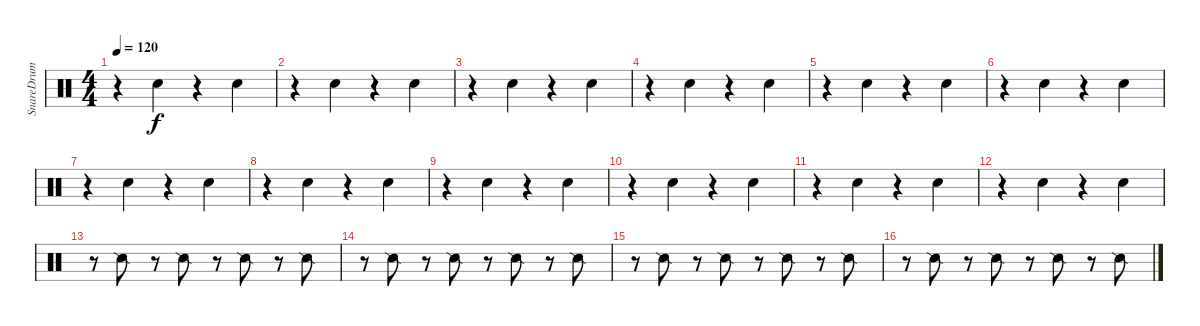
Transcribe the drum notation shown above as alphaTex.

\track ("SnareDrum" "SnareDrum") {instrument percussion}
\staff {score}
\articulation defaults
\ts (4 4)
\tempo 120
\clef neutral
\ks c
r.4{dy f} "Snare (hit) 2".4 r.4 "Snare (hit) 2".4 |
r.4 "Snare (hit) 2".4 r.4 "Snare (hit) 2".4 |
r.4 "Snare (hit) 2".4 r.4 "Snare (hit) 2".4 |
r.4 "Snare (hit) 2".4 r.4 "Snare (hit) 2".4 |
r.4 "Snare (hit) 2".4 r.4 "Snare (hit) 2".4 |
r.4 "Snare (hit) 2".4 r.4 "Snare (hit) 2".4 |
r.4 "Snare (hit) 2".4 r.4 "Snare (hit) 2".4 |
r.4 "Snare (hit) 2".4 r.4 "Snare (hit) 2".4 |
r.4 "Snare (hit) 2".4 r.4 "Snare (hit) 2".4 |
r.4 "Snare (hit) 2".4 r.4 "Snare (hit) 2".4 |
r.4 "Snare (hit) 2".4 r.4 "Snare (hit) 2".4 |
r.4 "Snare (hit) 2".4 r.4 "Snare (hit) 2".4 |
r.8 "Snare (side stick) 2".8 r.8 "Snare (side stick) 2".8 r.8 "Snare (side stick) 2".8 r.8 "Snare (side stick) 2".8 |
r.8 "Snare (side stick) 2".8 r.8 "Snare (side stick) 2".8 r.8 "Snare (side stick) 2".8 r.8 "Snare (side stick) 2".8 |
r.8 "Snare (side stick) 2".8 r.8 "Snare (side stick) 2".8 r.8 "Snare (side stick) 2".8 r.8 "Snare (side stick) 2".8 |
r.8 "Snare (side stick) 2".8 r.8 "Snare (side stick) 2".8 r.8 "Snare (side stick) 2".8 r.8 "Snare (side stick) 2".8
